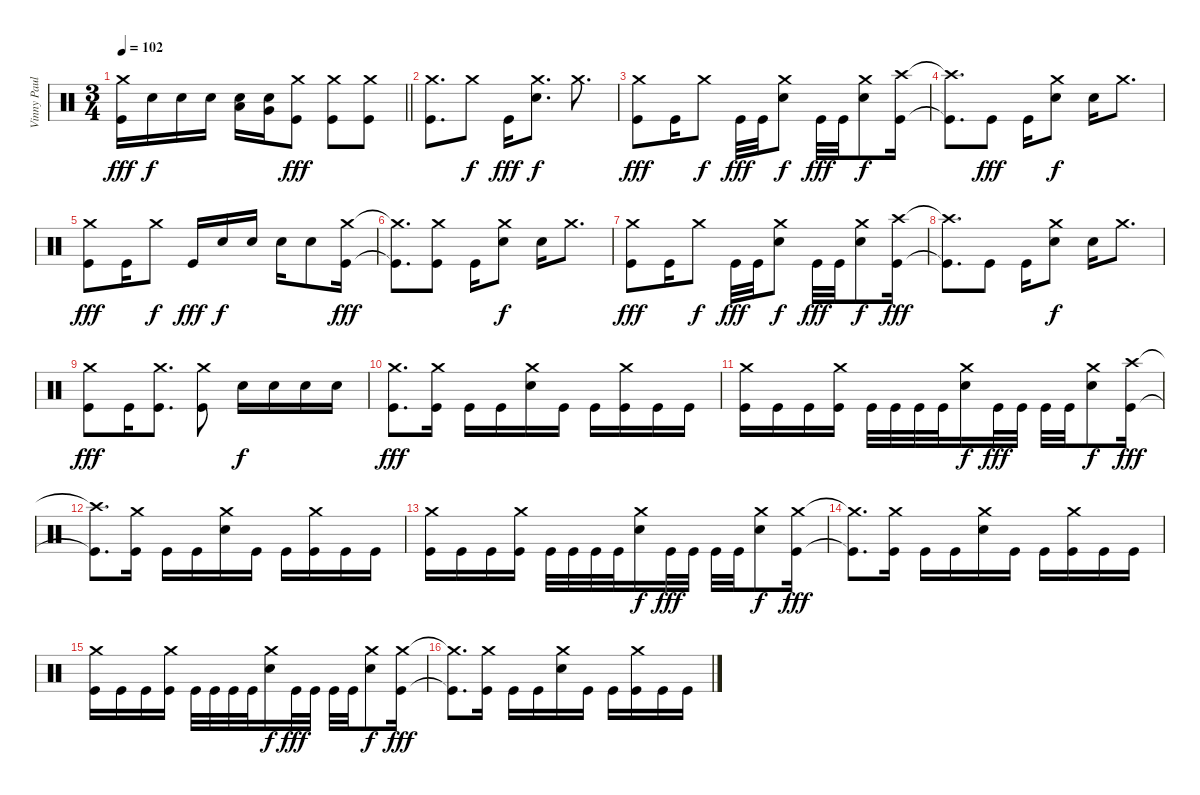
\track ("Vinny Paul" "Vinny Paul") {instrument percussion}
\staff {score}
\articulation defaults
\ts (3 4)
\tempo 102
\clef neutral
\barLineRight lightlight
\ks c
("Crash medium (hit)" "Kick (hit)").16{dy fff} "Electric Snare (hit)".16{dy f} "Electric Snare (hit)".16 "Electric Snare (hit)".16 ("Electric Snare (hit)" "Low Tom (hit)").16 ("Electric Snare (hit)" "Very Low Tom (hit)").16 ("Crash medium (hit)" "Kick (hit)").8{dy fff} ("Crash medium (hit)" "Kick (hit)").8 ("Crash medium (hit)" "Kick (hit)").8 |
\section ("" "")
("Crash medium (hit)" "Kick (hit)").8{d} "Crash medium (hit)".8{dy f} "Kick (hit)".16{dy fff} ("Crash medium (hit)" "Electric Snare (hit)").8{d dy f} "Crash medium (hit)".8{d} |
("Crash medium (hit)" "Kick (hit)").8{dy fff} "Kick (hit)".16 "Crash medium (hit)".8{dy f} "Kick (hit)".32{dy fff} "Kick (hit)".32 ("Crash medium (hit)" "Electric Snare (hit)").8{dy f} "Kick (hit)".32{dy fff} "Kick (hit)".32 ("Crash medium (hit)" "Electric Snare (hit)").8{dy f} ("Crash high (hit)" "Kick (hit)").16 |
("Crash high (hit)"{t} "Kick (hit)"{t}).8{d} "Kick (hit)".8{dy fff} "Kick (hit)".16 ("Crash medium (hit)" "Electric Snare (hit)").8{dy f} "Electric Snare (hit)".16 "Crash medium (hit)".8{d} |
("Crash medium (hit)" "Kick (hit)").8{dy fff} "Kick (hit)".16 "Crash medium (hit)".8{dy f} "Kick (hit)".16{dy fff} "Electric Snare (hit)".16{dy f} "Electric Snare (hit)".16 "Electric Snare (hit)".16 "Electric Snare (hit)".8 ("Crash medium (hit)" "Kick (hit)").16{dy fff} |
("Crash medium (hit)"{t} "Kick (hit)"{t}).8{d} ("Crash medium (hit)" "Kick (hit)").8 "Kick (hit)".16 ("Crash medium (hit)" "Electric Snare (hit)").8{dy f} "Electric Snare (hit)".16 "Crash medium (hit)".8{d} |
("Crash medium (hit)" "Kick (hit)").8{dy fff} "Kick (hit)".16 "Crash medium (hit)".8{dy f} "Kick (hit)".32{dy fff} "Kick (hit)".32 ("Crash medium (hit)" "Electric Snare (hit)").8{dy f} "Kick (hit)".32{dy fff} "Kick (hit)".32 ("Crash medium (hit)" "Electric Snare (hit)").8{dy f} ("Crash high (hit)" "Kick (hit)").16{dy fff} |
("Crash high (hit)"{t} "Kick (hit)"{t}).8{d} "Kick (hit)".8 "Kick (hit)".16 ("Crash medium (hit)" "Electric Snare (hit)").8{dy f} "Electric Snare (hit)".16 "Crash medium (hit)".8{d} |
("Crash medium (hit)" "Kick (hit)").8{dy fff} "Kick (hit)".16 ("Crash medium (hit)" "Kick (hit)").8{d} ("Crash medium (hit)" "Kick (hit)").8 "Electric Snare (hit)".16{dy f} "Electric Snare (hit)".16 "Electric Snare (hit)".16 "Electric Snare (hit)".16 |
("Crash medium (hit)" "Kick (hit)").8{d dy fff} ("Crash medium (hit)" "Kick (hit)").16 "Kick (hit)".16 "Kick (hit)".16 ("Crash medium (hit)" "Electric Snare (hit)").16 "Kick (hit)".16 "Kick (hit)".16 ("Crash medium (hit)" "Kick (hit)").16 "Kick (hit)".16 "Kick (hit)".16 |
("Crash medium (hit)" "Kick (hit)").16 "Kick (hit)".16 "Kick (hit)".16 ("Crash medium (hit)" "Kick (hit)").16 "Kick (hit)".32 "Kick (hit)".32 "Kick (hit)".32 "Kick (hit)".32 ("Crash medium (hit)" "Electric Snare (hit)").16{dy f} "Kick (hit)".32{dy fff} "Kick (hit)".32 "Kick (hit)".32 "Kick (hit)".32 ("Crash medium (hit)" "Electric Snare (hit)").8{dy f} ("Crash high (hit)" "Kick (hit)").16{dy fff} |
("Crash high (hit)"{t} "Kick (hit)"{t}).8{d} ("Crash medium (hit)" "Kick (hit)").16 "Kick (hit)".16 "Kick (hit)".16 ("Crash medium (hit)" "Electric Snare (hit)").16 "Kick (hit)".16 "Kick (hit)".16 ("Crash medium (hit)" "Kick (hit)").16 "Kick (hit)".16 "Kick (hit)".16 |
("Crash medium (hit)" "Kick (hit)").16 "Kick (hit)".16 "Kick (hit)".16 ("Crash medium (hit)" "Kick (hit)").16 "Kick (hit)".32 "Kick (hit)".32 "Kick (hit)".32 "Kick (hit)".32 ("Crash medium (hit)" "Electric Snare (hit)").16{dy f} "Kick (hit)".32{dy fff} "Kick (hit)".32 "Kick (hit)".32 "Kick (hit)".32 ("Crash medium (hit)" "Electric Snare (hit)").8{dy f} ("Crash medium (hit)" "Kick (hit)").16{dy fff} |
("Crash medium (hit)"{t} "Kick (hit)"{t}).8{d} ("Crash medium (hit)" "Kick (hit)").16 "Kick (hit)".16 "Kick (hit)".16 ("Crash medium (hit)" "Electric Snare (hit)").16 "Kick (hit)".16 "Kick (hit)".16 ("Crash medium (hit)" "Kick (hit)").16 "Kick (hit)".16 "Kick (hit)".16 |
("Crash medium (hit)" "Kick (hit)").16 "Kick (hit)".16 "Kick (hit)".16 ("Crash medium (hit)" "Kick (hit)").16 "Kick (hit)".32 "Kick (hit)".32 "Kick (hit)".32 "Kick (hit)".32 ("Crash medium (hit)" "Electric Snare (hit)").16{dy f} "Kick (hit)".32{dy fff} "Kick (hit)".32 "Kick (hit)".32 "Kick (hit)".32 ("Crash medium (hit)" "Electric Snare (hit)").8{dy f} ("Crash medium (hit)" "Kick (hit)").16{dy fff} |
("Crash medium (hit)"{t} "Kick (hit)"{t}).8{d} ("Crash medium (hit)" "Kick (hit)").16 "Kick (hit)".16 "Kick (hit)".16 ("Crash medium (hit)" "Electric Snare (hit)").16 "Kick (hit)".16 "Kick (hit)".16 ("Crash medium (hit)" "Kick (hit)").16 "Kick (hit)".16 "Kick (hit)".16
